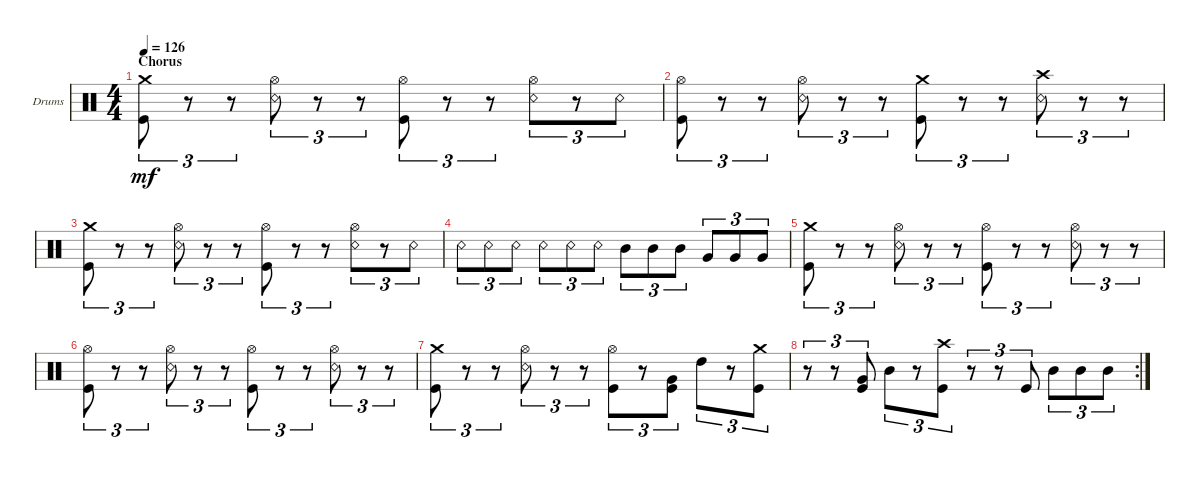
\defaultSystemsLayout 4
\bracketExtendMode groupsimilarinstruments
\firstSystemTrackNameOrientation horizontal
\otherSystemsTrackNameOrientation horizontal
\track ("Dominic Howard" "Drums") {instrument percussion}
\staff {score}
\articulation defaults
\ts (4 4)
\section ("" "Chorus")
\tempo 126
\clef neutral
\ks c
("Kick (hit)" "Crash medium (hit)").8{tu (3 2) dy mf} r.8{tu (3 2)} r.8{tu (3 2)} ("Snare (rim shot)" "Hi-Hat (open)").8{tu (3 2)} r.8{tu (3 2)} r.8{tu (3 2)} ("Kick (hit)" "Hi-Hat (open)").8{tu (3 2)} r.8{tu (3 2)} r.8{tu (3 2)} ("Snare (rim shot)" "Hi-Hat (open)").8{tu (3 2)} r.8{tu (3 2)} "Snare (rim shot)".8{tu (3 2)} |
("Kick (hit)" "Hi-Hat (open)").8{tu (3 2)} r.8{tu (3 2)} r.8{tu (3 2)} ("Snare (rim shot)" "Hi-Hat (open)").8{tu (3 2)} r.8{tu (3 2)} r.8{tu (3 2)} ("Kick (hit)" "Crash medium (hit)").8{tu (3 2)} r.8{tu (3 2)} r.8{tu (3 2)} ("Snare (rim shot)" "Crash high (hit)").8{tu (3 2)} r.8{tu (3 2)} r.8{tu (3 2)} |
("Kick (hit)" "Crash medium (hit)").8{tu (3 2)} r.8{tu (3 2)} r.8{tu (3 2)} ("Snare (rim shot)" "Hi-Hat (open)").8{tu (3 2)} r.8{tu (3 2)} r.8{tu (3 2)} ("Kick (hit)" "Hi-Hat (open)").8{tu (3 2)} r.8{tu (3 2)} r.8{tu (3 2)} ("Snare (rim shot)" "Hi-Hat (open)").8{tu (3 2)} r.8{tu (3 2)} "Snare (rim shot)".8{tu (3 2)} |
"Snare (rim shot)".8{tu (3 2)} "Snare (rim shot)".8{tu (3 2)} "Snare (rim shot)".8{tu (3 2)} "Snare (rim shot)".8{tu (3 2)} "Snare (rim shot)".8{tu (3 2)} "Snare (rim shot)".8{tu (3 2)} "Mid Tom (hit)".8{tu (3 2)} "Mid Tom (hit)".8{tu (3 2)} "Mid Tom (hit)".8{tu (3 2)} "Very Low Tom (hit)".8{tu (3 2)} "Very Low Tom (hit)".8{tu (3 2)} "Very Low Tom (hit)".8{tu (3 2)} |
("Kick (hit)" "Crash medium (hit)").8{tu (3 2)} r.8{tu (3 2)} r.8{tu (3 2)} ("Snare (rim shot)" "Hi-Hat (open)").8{tu (3 2)} r.8{tu (3 2)} r.8{tu (3 2)} ("Kick (hit)" "Hi-Hat (open)").8{tu (3 2)} r.8{tu (3 2)} r.8{tu (3 2)} ("Snare (rim shot)" "Hi-Hat (open)").8{tu (3 2)} r.8{tu (3 2)} r.8{tu (3 2)} |
("Kick (hit)" "Hi-Hat (open)").8{tu (3 2)} r.8{tu (3 2)} r.8{tu (3 2)} ("Snare (rim shot)" "Hi-Hat (open)").8{tu (3 2)} r.8{tu (3 2)} r.8{tu (3 2)} ("Kick (hit)" "Hi-Hat (open)").8{tu (3 2)} r.8{tu (3 2)} r.8{tu (3 2)} ("Snare (rim shot)" "Hi-Hat (open)").8{tu (3 2)} r.8{tu (3 2)} r.8{tu (3 2)} |
("Kick (hit)" "Crash medium (hit)").8{tu (3 2)} r.8{tu (3 2)} r.8{tu (3 2)} ("Snare (rim shot)" "Hi-Hat (open)").8{tu (3 2)} r.8{tu (3 2)} r.8{tu (3 2)} ("Kick (hit)" "Hi-Hat (open)").8{tu (3 2)} r.8{tu (3 2)} ("Kick (hit)" "Very Low Tom (hit)").8{tu (3 2)} "High Tom (hit)".8{tu (3 2)} r.8{tu (3 2)} ("Kick (hit)" "Crash medium (hit)").8{tu (3 2)} |
\rc 2
r.8{tu (3 2)} r.8{tu (3 2)} ("Kick (hit)" "Very Low Tom (hit)").8{tu (3 2)} "Mid Tom (hit)".8{tu (3 2)} r.8{tu (3 2)} ("Kick (hit)" "Crash high (hit)").8{tu (3 2)} r.8{tu (3 2)} r.8{tu (3 2)} "Kick (hit)".8{tu (3 2)} "Mid Tom (hit)".8{tu (3 2)} "Mid Tom (hit)".8{tu (3 2)} "Mid Tom (hit)".8{tu (3 2)}
